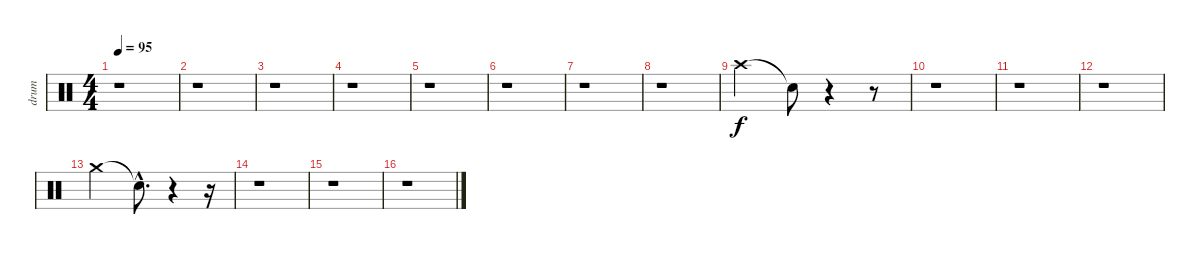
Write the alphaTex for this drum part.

\track ("drum" "drum") {instrument percussion}
\staff {score}
\articulation defaults
\ts (4 4)
\tempo 95
\clef neutral
\ks c
r.1{dy f} |
r.1 |
r.1 |
r.1 |
r.1 |
r.1 |
r.1 |
r.1 |
"Crash high (hit)".2 "Snare (hit)"{t}.8 r.4 r.8 |
r.1 |
r.1 |
r.1 |
"Crash medium (hit)".2 "Snare (hit)"{hac t}.8{d} r.4 r.16 |
r.1 |
r.1 |
r.1
